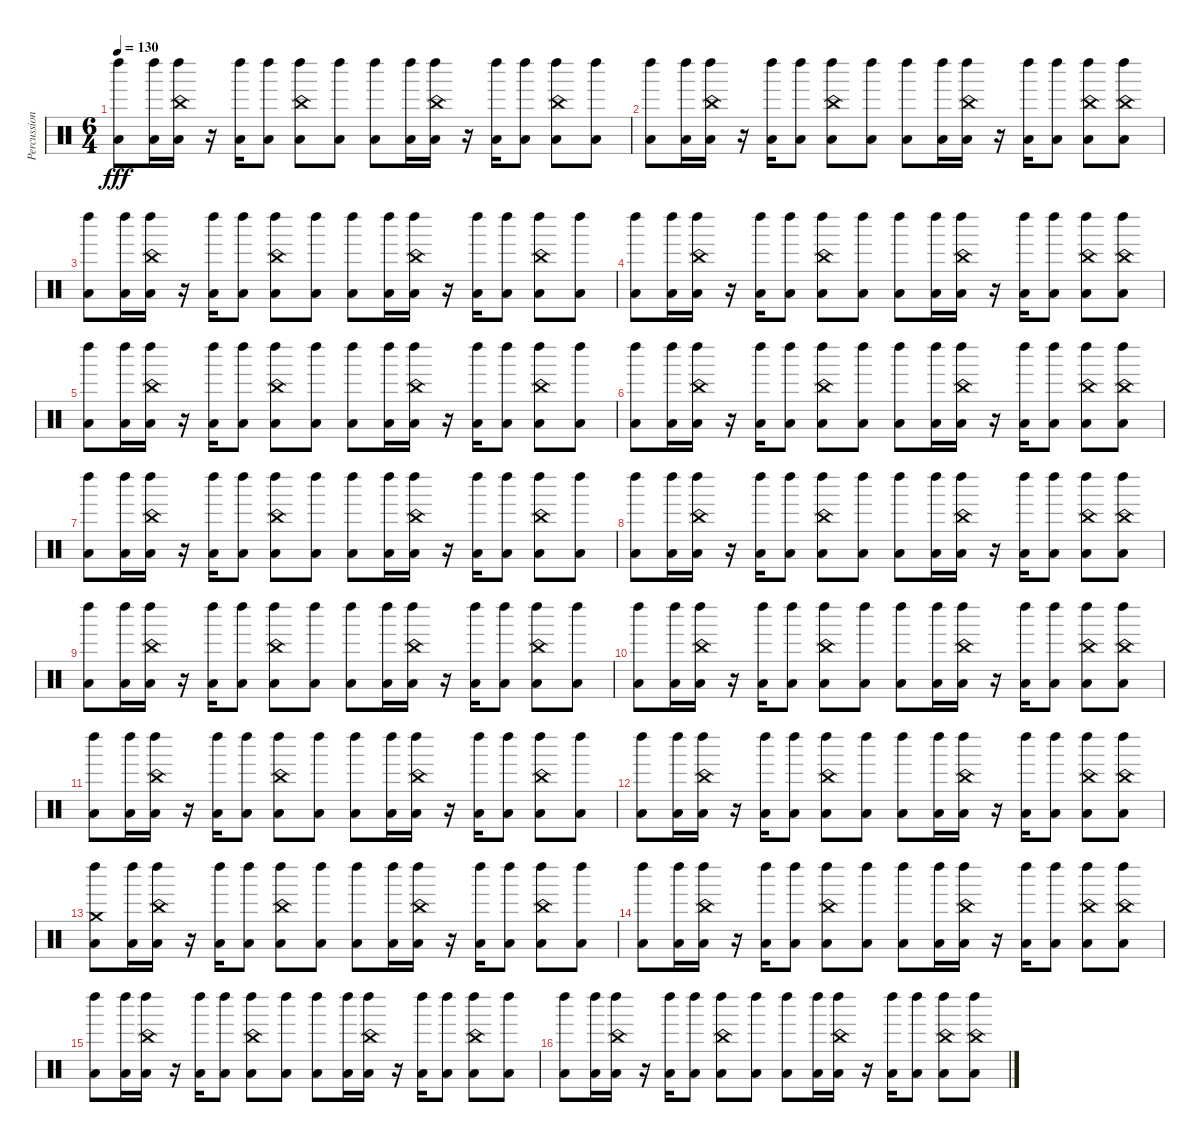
\track ("Percussion" "Percussion") {instrument percussion}
\staff {score}
\articulation defaults
\ts (6 4)
\tempo 130
\clef neutral
\ks c
("Left Maraca (hit)" "Low Floor Tom (hit)").8{dy fff} ("Left Maraca (hit)" "Low Tom (hit)").16 ("Left Maraca (hit)" "China (hit)" "Low Tom (hit)").16 r.16 ("Left Maraca (hit)" "Low Floor Tom (hit)").16 ("Left Maraca (hit)" "Low Floor Tom (hit)").8 ("Left Maraca (hit)" "China (hit)" "Low Tom (hit)").8 ("Left Maraca (hit)" "Low Tom (hit)").8 ("Left Maraca (hit)" "Low Floor Tom (hit)").8 ("Left Maraca (hit)" "Low Tom (hit)").16 ("Left Maraca (hit)" "China (hit)" "Low Tom (hit)").16 r.16 ("Left Maraca (hit)" "Low Floor Tom (hit)").16 ("Left Maraca (hit)" "Low Floor Tom (hit)").8 ("Left Maraca (hit)" "China (hit)" "Low Tom (hit)").8 ("Left Maraca (hit)" "Low Tom (hit)").8 |
("Left Maraca (hit)" "Low Floor Tom (hit)").8 ("Left Maraca (hit)" "Low Tom (hit)").16 ("Left Maraca (hit)" "China (hit)" "Low Tom (hit)").16 r.16 ("Left Maraca (hit)" "Low Floor Tom (hit)").16 ("Left Maraca (hit)" "Low Floor Tom (hit)").8 ("Left Maraca (hit)" "China (hit)" "Low Tom (hit)").8 ("Left Maraca (hit)" "Low Tom (hit)").8 ("Left Maraca (hit)" "Low Floor Tom (hit)").8 ("Left Maraca (hit)" "Low Tom (hit)").16 ("Left Maraca (hit)" "China (hit)" "Low Tom (hit)").16 r.16 ("Left Maraca (hit)" "Low Floor Tom (hit)").16 ("Left Maraca (hit)" "Low Floor Tom (hit)").8 ("Left Maraca (hit)" "China (hit)" "Low Tom (hit)").8 ("Left Maraca (hit)" "China (hit)" "Low Tom (hit)").8 |
("Left Maraca (hit)" "Low Floor Tom (hit)").8 ("Left Maraca (hit)" "Low Tom (hit)").16 ("Left Maraca (hit)" "China (hit)" "Low Tom (hit)").16 r.16 ("Left Maraca (hit)" "Low Floor Tom (hit)").16 ("Left Maraca (hit)" "Low Floor Tom (hit)").8 ("Left Maraca (hit)" "China (hit)" "Low Tom (hit)").8 ("Left Maraca (hit)" "Low Tom (hit)").8 ("Left Maraca (hit)" "Low Floor Tom (hit)").8 ("Left Maraca (hit)" "Low Tom (hit)").16 ("Left Maraca (hit)" "China (hit)" "Low Tom (hit)").16 r.16 ("Left Maraca (hit)" "Low Floor Tom (hit)").16 ("Left Maraca (hit)" "Low Floor Tom (hit)").8 ("Left Maraca (hit)" "China (hit)" "Low Tom (hit)").8 ("Left Maraca (hit)" "Low Tom (hit)").8 |
("Left Maraca (hit)" "Low Floor Tom (hit)").8 ("Left Maraca (hit)" "Low Tom (hit)").16 ("Left Maraca (hit)" "China (hit)" "Low Tom (hit)").16 r.16 ("Left Maraca (hit)" "Low Floor Tom (hit)").16 ("Left Maraca (hit)" "Low Floor Tom (hit)").8 ("Left Maraca (hit)" "China (hit)" "Low Tom (hit)").8 ("Left Maraca (hit)" "Low Tom (hit)").8 ("Left Maraca (hit)" "Low Floor Tom (hit)").8 ("Left Maraca (hit)" "Low Tom (hit)").16 ("Left Maraca (hit)" "China (hit)" "Low Tom (hit)").16 r.16 ("Left Maraca (hit)" "Low Floor Tom (hit)").16 ("Left Maraca (hit)" "Low Floor Tom (hit)").8 ("Left Maraca (hit)" "China (hit)" "Low Tom (hit)").8 ("Left Maraca (hit)" "China (hit)" "Low Tom (hit)").8 |
("Left Maraca (hit)" "Low Floor Tom (hit)").8 ("Left Maraca (hit)" "Low Tom (hit)").16 ("Left Maraca (hit)" "China (hit)" "Low Tom (hit)").16 r.16 ("Left Maraca (hit)" "Low Floor Tom (hit)").16 ("Left Maraca (hit)" "Low Floor Tom (hit)").8 ("Left Maraca (hit)" "China (hit)" "Low Tom (hit)").8 ("Left Maraca (hit)" "Low Tom (hit)").8 ("Left Maraca (hit)" "Low Floor Tom (hit)").8 ("Left Maraca (hit)" "Low Tom (hit)").16 ("Left Maraca (hit)" "China (hit)" "Low Tom (hit)").16 r.16 ("Left Maraca (hit)" "Low Floor Tom (hit)").16 ("Left Maraca (hit)" "Low Floor Tom (hit)").8 ("Left Maraca (hit)" "China (hit)" "Low Tom (hit)").8 ("Left Maraca (hit)" "Low Tom (hit)").8 |
("Left Maraca (hit)" "Low Floor Tom (hit)").8 ("Left Maraca (hit)" "Low Tom (hit)").16 ("Left Maraca (hit)" "China (hit)" "Low Tom (hit)").16 r.16 ("Left Maraca (hit)" "Low Floor Tom (hit)").16 ("Left Maraca (hit)" "Low Floor Tom (hit)").8 ("Left Maraca (hit)" "China (hit)" "Low Tom (hit)").8 ("Left Maraca (hit)" "Low Tom (hit)").8 ("Left Maraca (hit)" "Low Floor Tom (hit)").8 ("Left Maraca (hit)" "Low Tom (hit)").16 ("Left Maraca (hit)" "China (hit)" "Low Tom (hit)").16 r.16 ("Left Maraca (hit)" "Low Floor Tom (hit)").16 ("Left Maraca (hit)" "Low Floor Tom (hit)").8 ("Left Maraca (hit)" "China (hit)" "Low Tom (hit)").8 ("Left Maraca (hit)" "China (hit)" "Low Tom (hit)").8 |
("Left Maraca (hit)" "Low Floor Tom (hit)").8 ("Left Maraca (hit)" "Low Tom (hit)").16 ("Left Maraca (hit)" "China (hit)" "Low Tom (hit)").16 r.16 ("Left Maraca (hit)" "Low Floor Tom (hit)").16 ("Left Maraca (hit)" "Low Floor Tom (hit)").8 ("Left Maraca (hit)" "China (hit)" "Low Tom (hit)").8 ("Left Maraca (hit)" "Low Tom (hit)").8 ("Left Maraca (hit)" "Low Floor Tom (hit)").8 ("Left Maraca (hit)" "Low Tom (hit)").16 ("Left Maraca (hit)" "China (hit)" "Low Tom (hit)").16 r.16 ("Left Maraca (hit)" "Low Floor Tom (hit)").16 ("Left Maraca (hit)" "Low Floor Tom (hit)").8 ("Left Maraca (hit)" "China (hit)" "Low Tom (hit)").8 ("Left Maraca (hit)" "Low Tom (hit)").8 |
("Left Maraca (hit)" "Low Floor Tom (hit)").8 ("Left Maraca (hit)" "Low Tom (hit)").16 ("Left Maraca (hit)" "China (hit)" "Low Tom (hit)").16 r.16 ("Left Maraca (hit)" "Low Floor Tom (hit)").16 ("Left Maraca (hit)" "Low Floor Tom (hit)").8 ("Left Maraca (hit)" "China (hit)" "Low Tom (hit)").8 ("Left Maraca (hit)" "Low Tom (hit)").8 ("Left Maraca (hit)" "Low Floor Tom (hit)").8 ("Left Maraca (hit)" "Low Tom (hit)").16 ("Left Maraca (hit)" "China (hit)" "Low Tom (hit)").16 r.16 ("Left Maraca (hit)" "Low Floor Tom (hit)").16 ("Left Maraca (hit)" "Low Floor Tom (hit)").8 ("Left Maraca (hit)" "China (hit)" "Low Tom (hit)").8 ("Left Maraca (hit)" "China (hit)" "Low Tom (hit)").8 |
("Left Maraca (hit)" "Low Floor Tom (hit)").8 ("Left Maraca (hit)" "Low Tom (hit)").16 ("Left Maraca (hit)" "China (hit)" "Low Tom (hit)").16 r.16 ("Left Maraca (hit)" "Low Floor Tom (hit)").16 ("Left Maraca (hit)" "Low Floor Tom (hit)").8 ("Left Maraca (hit)" "China (hit)" "Low Tom (hit)").8 ("Left Maraca (hit)" "Low Tom (hit)").8 ("Left Maraca (hit)" "Low Floor Tom (hit)").8 ("Left Maraca (hit)" "Low Tom (hit)").16 ("Left Maraca (hit)" "China (hit)" "Low Tom (hit)").16 r.16 ("Left Maraca (hit)" "Low Floor Tom (hit)").16 ("Left Maraca (hit)" "Low Floor Tom (hit)").8 ("Left Maraca (hit)" "China (hit)" "Low Tom (hit)").8 ("Left Maraca (hit)" "Low Tom (hit)").8 |
("Left Maraca (hit)" "Low Floor Tom (hit)").8 ("Left Maraca (hit)" "Low Tom (hit)").16 ("Left Maraca (hit)" "China (hit)" "Low Tom (hit)").16 r.16 ("Left Maraca (hit)" "Low Floor Tom (hit)").16 ("Left Maraca (hit)" "Low Floor Tom (hit)").8 ("Left Maraca (hit)" "China (hit)" "Low Tom (hit)").8 ("Left Maraca (hit)" "Low Tom (hit)").8 ("Left Maraca (hit)" "Low Floor Tom (hit)").8 ("Left Maraca (hit)" "Low Tom (hit)").16 ("Left Maraca (hit)" "China (hit)" "Low Tom (hit)").16 r.16 ("Left Maraca (hit)" "Low Floor Tom (hit)").16 ("Left Maraca (hit)" "Low Floor Tom (hit)").8 ("Left Maraca (hit)" "China (hit)" "Low Tom (hit)").8 ("Left Maraca (hit)" "China (hit)" "Low Tom (hit)").8 |
("Left Maraca (hit)" "Low Floor Tom (hit)").8 ("Left Maraca (hit)" "Low Tom (hit)").16 ("Left Maraca (hit)" "China (hit)" "Low Tom (hit)").16 r.16 ("Left Maraca (hit)" "Low Floor Tom (hit)").16 ("Left Maraca (hit)" "Low Floor Tom (hit)").8 ("Left Maraca (hit)" "China (hit)" "Low Tom (hit)").8 ("Left Maraca (hit)" "Low Tom (hit)").8 ("Left Maraca (hit)" "Low Floor Tom (hit)").8 ("Left Maraca (hit)" "Low Tom (hit)").16 ("Left Maraca (hit)" "China (hit)" "Low Tom (hit)").16 r.16 ("Left Maraca (hit)" "Low Floor Tom (hit)").16 ("Left Maraca (hit)" "Low Floor Tom (hit)").8 ("Left Maraca (hit)" "China (hit)" "Low Tom (hit)").8 ("Left Maraca (hit)" "Low Tom (hit)").8 |
("Left Maraca (hit)" "Low Floor Tom (hit)").8 ("Left Maraca (hit)" "Low Tom (hit)").16 ("Left Maraca (hit)" "China (hit)" "Low Tom (hit)").16 r.16 ("Left Maraca (hit)" "Low Floor Tom (hit)").16 ("Left Maraca (hit)" "Low Floor Tom (hit)").8 ("Left Maraca (hit)" "China (hit)" "Low Tom (hit)").8 ("Left Maraca (hit)" "Low Tom (hit)").8 ("Left Maraca (hit)" "Low Floor Tom (hit)").8 ("Left Maraca (hit)" "Low Tom (hit)").16 ("Left Maraca (hit)" "China (hit)" "Low Tom (hit)").16 r.16 ("Left Maraca (hit)" "Low Floor Tom (hit)").16 ("Left Maraca (hit)" "Low Floor Tom (hit)").8 ("Left Maraca (hit)" "China (hit)" "Low Tom (hit)").8 ("Left Maraca (hit)" "China (hit)" "Low Tom (hit)").8 |
("Left Maraca (hit)" "Crash medium (hit)" "Low Floor Tom (hit)").8 ("Left Maraca (hit)" "Low Tom (hit)").16 ("Left Maraca (hit)" "China (hit)" "Low Tom (hit)").16 r.16 ("Left Maraca (hit)" "Low Floor Tom (hit)").16 ("Left Maraca (hit)" "Low Floor Tom (hit)").8 ("Left Maraca (hit)" "China (hit)" "Low Tom (hit)").8 ("Left Maraca (hit)" "Low Tom (hit)").8 ("Left Maraca (hit)" "Low Floor Tom (hit)").8 ("Left Maraca (hit)" "Low Tom (hit)").16 ("Left Maraca (hit)" "China (hit)" "Low Tom (hit)").16 r.16 ("Left Maraca (hit)" "Low Floor Tom (hit)").16 ("Left Maraca (hit)" "Low Floor Tom (hit)").8 ("Left Maraca (hit)" "China (hit)" "Low Tom (hit)").8 ("Left Maraca (hit)" "Low Tom (hit)").8 |
("Left Maraca (hit)" "Low Floor Tom (hit)").8 ("Left Maraca (hit)" "Low Tom (hit)").16 ("Left Maraca (hit)" "China (hit)" "Low Tom (hit)").16 r.16 ("Left Maraca (hit)" "Low Floor Tom (hit)").16 ("Left Maraca (hit)" "Low Floor Tom (hit)").8 ("Left Maraca (hit)" "China (hit)" "Low Tom (hit)").8 ("Left Maraca (hit)" "Low Tom (hit)").8 ("Left Maraca (hit)" "Low Floor Tom (hit)").8 ("Left Maraca (hit)" "Low Tom (hit)").16 ("Left Maraca (hit)" "China (hit)" "Low Tom (hit)").16 r.16 ("Left Maraca (hit)" "Low Floor Tom (hit)").16 ("Left Maraca (hit)" "Low Floor Tom (hit)").8 ("Left Maraca (hit)" "China (hit)" "Low Tom (hit)").8 ("Left Maraca (hit)" "China (hit)" "Low Tom (hit)").8 |
("Left Maraca (hit)" "Low Floor Tom (hit)").8 ("Left Maraca (hit)" "Low Tom (hit)").16 ("Left Maraca (hit)" "China (hit)" "Low Tom (hit)").16 r.16 ("Left Maraca (hit)" "Low Floor Tom (hit)").16 ("Left Maraca (hit)" "Low Floor Tom (hit)").8 ("Left Maraca (hit)" "China (hit)" "Low Tom (hit)").8 ("Left Maraca (hit)" "Low Tom (hit)").8 ("Left Maraca (hit)" "Low Floor Tom (hit)").8 ("Left Maraca (hit)" "Low Tom (hit)").16 ("Left Maraca (hit)" "China (hit)" "Low Tom (hit)").16 r.16 ("Left Maraca (hit)" "Low Floor Tom (hit)").16 ("Left Maraca (hit)" "Low Floor Tom (hit)").8 ("Left Maraca (hit)" "China (hit)" "Low Tom (hit)").8 ("Left Maraca (hit)" "Low Tom (hit)").8 |
("Left Maraca (hit)" "Low Floor Tom (hit)").8 ("Left Maraca (hit)" "Low Tom (hit)").16 ("Left Maraca (hit)" "China (hit)" "Low Tom (hit)").16 r.16 ("Left Maraca (hit)" "Low Floor Tom (hit)").16 ("Left Maraca (hit)" "Low Floor Tom (hit)").8 ("Left Maraca (hit)" "China (hit)" "Low Tom (hit)").8 ("Left Maraca (hit)" "Low Tom (hit)").8 ("Left Maraca (hit)" "Low Floor Tom (hit)").8 ("Left Maraca (hit)" "Low Tom (hit)").16 ("Left Maraca (hit)" "China (hit)" "Low Tom (hit)").16 r.16 ("Left Maraca (hit)" "Low Floor Tom (hit)").16 ("Left Maraca (hit)" "Low Floor Tom (hit)").8 ("Left Maraca (hit)" "China (hit)" "Low Tom (hit)").8 ("Left Maraca (hit)" "China (hit)" "Low Tom (hit)").8
